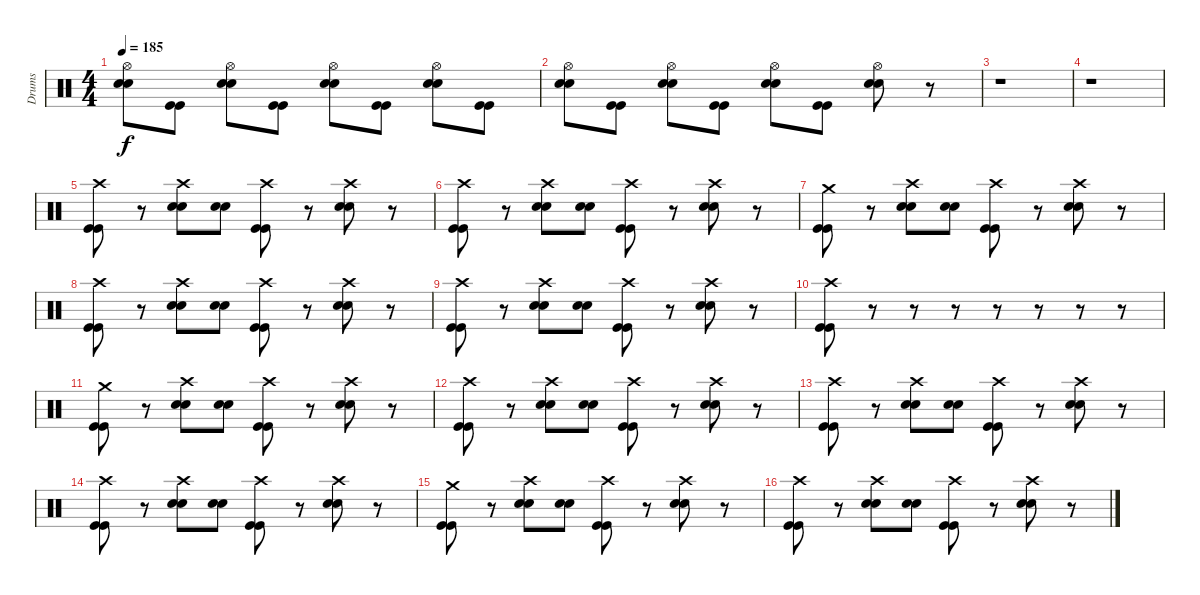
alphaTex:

\track ("Drums" "Drums") {instrument percussion}
\staff {score}
\articulation defaults
\ts (4 4)
\tempo 185
\clef neutral
\ks c
("Hi-Hat (open)" "Electric Snare (hit)" "Electric Snare (hit)").8{dy f} ("Kick (hit)" "Kick (hit)").8 ("Hi-Hat (open)" "Electric Snare (hit)" "Electric Snare (hit)").8 ("Kick (hit)" "Kick (hit)").8 ("Hi-Hat (open)" "Electric Snare (hit)" "Electric Snare (hit)").8 ("Kick (hit)" "Kick (hit)").8 ("Hi-Hat (open)" "Electric Snare (hit)" "Electric Snare (hit)").8 ("Kick (hit)" "Kick (hit)").8 |
("Hi-Hat (open)" "Electric Snare (hit)" "Electric Snare (hit)").8 ("Kick (hit)" "Kick (hit)").8 ("Hi-Hat (open)" "Electric Snare (hit)" "Electric Snare (hit)").8 ("Kick (hit)" "Kick (hit)").8 ("Hi-Hat (open)" "Electric Snare (hit)" "Electric Snare (hit)").8 ("Kick (hit)" "Kick (hit)").8 ("Hi-Hat (open)" "Electric Snare (hit)" "Electric Snare (hit)").8 r.8 |
r.1 |
r.1 |
("Crash high (hit)" "Kick (hit)" "Kick (hit)").8 r.8 ("Crash high (hit)" "Electric Snare (hit)" "Electric Snare (hit)").8 ("Electric Snare (hit)" "Electric Snare (hit)").8 ("Crash high (hit)" "Kick (hit)" "Kick (hit)").8 r.8 ("Crash high (hit)" "Electric Snare (hit)" "Electric Snare (hit)").8 r.8 |
("Crash high (hit)" "Kick (hit)" "Kick (hit)").8 r.8 ("Crash high (hit)" "Electric Snare (hit)" "Electric Snare (hit)").8 ("Electric Snare (hit)" "Electric Snare (hit)").8 ("Crash high (hit)" "Kick (hit)" "Kick (hit)").8 r.8 ("Crash high (hit)" "Electric Snare (hit)" "Electric Snare (hit)").8 r.8 |
("Crash medium (hit)" "Kick (hit)" "Kick (hit)").8 r.8 ("Crash high (hit)" "Electric Snare (hit)" "Electric Snare (hit)").8 ("Electric Snare (hit)" "Electric Snare (hit)").8 ("Crash high (hit)" "Kick (hit)" "Kick (hit)").8 r.8 ("Crash high (hit)" "Electric Snare (hit)" "Electric Snare (hit)").8 r.8 |
("Crash high (hit)" "Kick (hit)" "Kick (hit)").8 r.8 ("Crash high (hit)" "Electric Snare (hit)" "Electric Snare (hit)").8 ("Electric Snare (hit)" "Electric Snare (hit)").8 ("Crash high (hit)" "Kick (hit)" "Kick (hit)").8 r.8 ("Crash high (hit)" "Electric Snare (hit)" "Electric Snare (hit)").8 r.8 |
("Crash high (hit)" "Kick (hit)" "Kick (hit)").8 r.8 ("Crash high (hit)" "Electric Snare (hit)" "Electric Snare (hit)").8 ("Electric Snare (hit)" "Electric Snare (hit)").8 ("Crash high (hit)" "Kick (hit)" "Kick (hit)").8 r.8 ("Crash high (hit)" "Electric Snare (hit)" "Electric Snare (hit)").8 r.8 |
("Crash high (hit)" "Kick (hit)" "Kick (hit)").8 r.8 r.8 r.8 r.8 r.8 r.8 r.8 |
("Crash medium (hit)" "Kick (hit)" "Kick (hit)").8 r.8 ("Crash high (hit)" "Electric Snare (hit)" "Electric Snare (hit)").8 ("Electric Snare (hit)" "Electric Snare (hit)").8 ("Crash high (hit)" "Kick (hit)" "Kick (hit)").8 r.8 ("Crash high (hit)" "Electric Snare (hit)" "Electric Snare (hit)").8 r.8 |
("Crash high (hit)" "Kick (hit)" "Kick (hit)").8 r.8 ("Crash high (hit)" "Electric Snare (hit)" "Electric Snare (hit)").8 ("Electric Snare (hit)" "Electric Snare (hit)").8 ("Crash high (hit)" "Kick (hit)" "Kick (hit)").8 r.8 ("Crash high (hit)" "Electric Snare (hit)" "Electric Snare (hit)").8 r.8 |
("Crash high (hit)" "Kick (hit)" "Kick (hit)").8 r.8 ("Crash high (hit)" "Electric Snare (hit)" "Electric Snare (hit)").8 ("Electric Snare (hit)" "Electric Snare (hit)").8 ("Crash high (hit)" "Kick (hit)" "Kick (hit)").8 r.8 ("Crash high (hit)" "Electric Snare (hit)" "Electric Snare (hit)").8 r.8 |
("Crash high (hit)" "Kick (hit)" "Kick (hit)").8 r.8 ("Crash high (hit)" "Electric Snare (hit)" "Electric Snare (hit)").8 ("Electric Snare (hit)" "Electric Snare (hit)").8 ("Crash high (hit)" "Kick (hit)" "Kick (hit)").8 r.8 ("Crash high (hit)" "Electric Snare (hit)" "Electric Snare (hit)").8 r.8 |
("Crash medium (hit)" "Kick (hit)" "Kick (hit)").8 r.8 ("Crash high (hit)" "Electric Snare (hit)" "Electric Snare (hit)").8 ("Electric Snare (hit)" "Electric Snare (hit)").8 ("Crash high (hit)" "Kick (hit)" "Kick (hit)").8 r.8 ("Crash high (hit)" "Electric Snare (hit)" "Electric Snare (hit)").8 r.8 |
("Crash high (hit)" "Kick (hit)" "Kick (hit)").8 r.8 ("Crash high (hit)" "Electric Snare (hit)" "Electric Snare (hit)").8 ("Electric Snare (hit)" "Electric Snare (hit)").8 ("Crash high (hit)" "Kick (hit)" "Kick (hit)").8 r.8 ("Crash high (hit)" "Electric Snare (hit)" "Electric Snare (hit)").8 r.8
